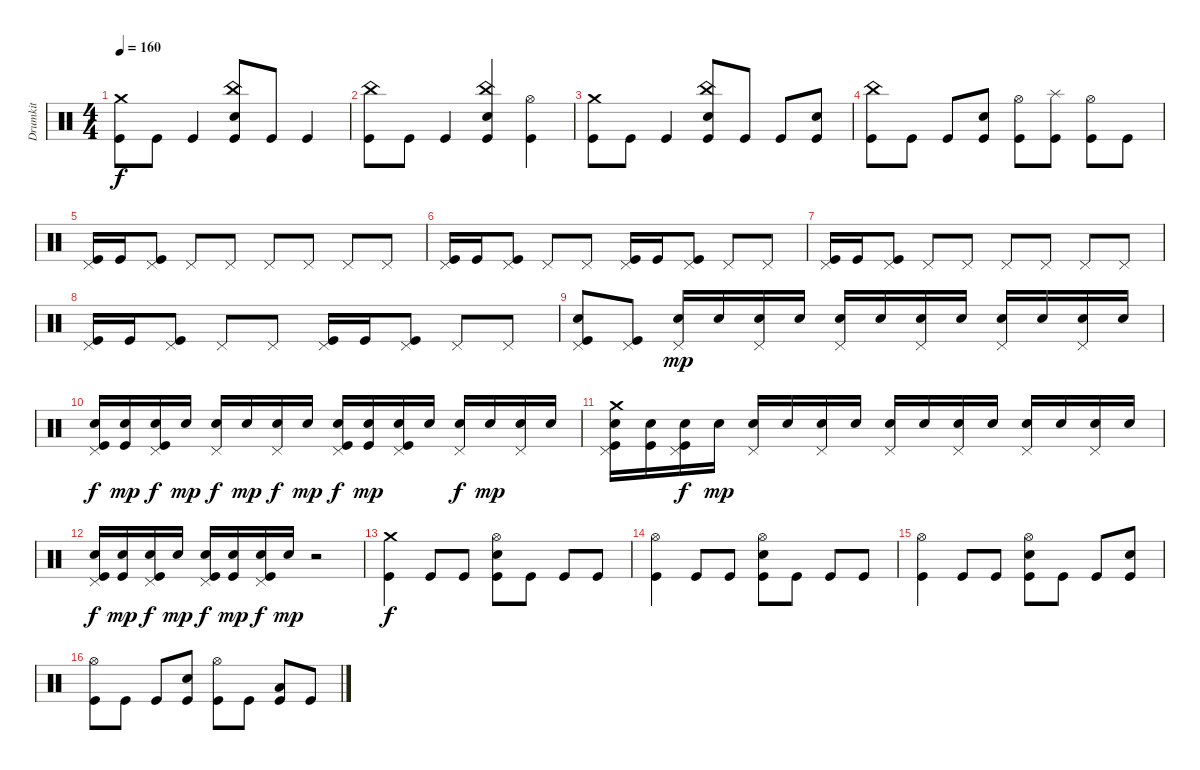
\track ("Drumkit" "Drumkit") {instrument percussion}
\staff {score}
\articulation defaults
\ts (4 4)
\tempo 160
\clef neutral
\ks c
("Crash medium (hit)" "Kick (hit)").8{dy f} "Kick (hit)".8 "Kick (hit)".4 ("China (hit)" "Snare (hit) 2" "Kick (hit)").8 "Kick (hit)".8 "Kick (hit)".4 |
("China (hit)" "Kick (hit)").8 "Kick (hit)".8 "Kick (hit)".4 ("China (hit)" "Snare (hit) 2" "Kick (hit)").4 ("Hi-Hat (open)" "Kick (hit)").4 |
("Crash medium (hit)" "Kick (hit)").8 "Kick (hit)".8 "Kick (hit)".4 ("China (hit)" "Snare (hit) 2" "Kick (hit)").8 "Kick (hit)".8 "Kick (hit)".8 ("Snare (hit) 2" "Kick (hit)").8 |
("China (hit)" "Kick (hit)").8 "Kick (hit)".8 "Kick (hit)".8 ("Snare (hit) 2" "Kick (hit)").8 ("Hi-Hat (open)" "Kick (hit)").8 ("Splash (hit)" "Kick (hit)").8 ("Hi-Hat (open)" "Kick (hit)").8 "Kick (hit)".8 |
("Pedal Hi-Hat (hit)" "Kick (hit)").16 "Kick (hit)".16 ("Pedal Hi-Hat (hit)" "Kick (hit)").8 "Pedal Hi-Hat (hit)".8 "Pedal Hi-Hat (hit)".8 "Pedal Hi-Hat (hit)".8 "Pedal Hi-Hat (hit)".8 "Pedal Hi-Hat (hit)".8 "Pedal Hi-Hat (hit)".8 |
("Pedal Hi-Hat (hit)" "Kick (hit)").16 "Kick (hit)".16 ("Pedal Hi-Hat (hit)" "Kick (hit)").8 "Pedal Hi-Hat (hit)".8 "Pedal Hi-Hat (hit)".8 ("Pedal Hi-Hat (hit)" "Kick (hit)").16 "Kick (hit)".16 ("Pedal Hi-Hat (hit)" "Kick (hit)").8 "Pedal Hi-Hat (hit)".8 "Pedal Hi-Hat (hit)".8 |
("Pedal Hi-Hat (hit)" "Kick (hit)").16 "Kick (hit)".16 ("Pedal Hi-Hat (hit)" "Kick (hit)").8 "Pedal Hi-Hat (hit)".8 "Pedal Hi-Hat (hit)".8 "Pedal Hi-Hat (hit)".8 "Pedal Hi-Hat (hit)".8 "Pedal Hi-Hat (hit)".8 "Pedal Hi-Hat (hit)".8 |
("Pedal Hi-Hat (hit)" "Kick (hit)").16 "Kick (hit)".16 ("Pedal Hi-Hat (hit)" "Kick (hit)").8 "Pedal Hi-Hat (hit)".8 "Pedal Hi-Hat (hit)".8 ("Pedal Hi-Hat (hit)" "Kick (hit)").16 "Kick (hit)".16 ("Pedal Hi-Hat (hit)" "Kick (hit)").8 "Pedal Hi-Hat (hit)".8 "Pedal Hi-Hat (hit)".8 |
("Pedal Hi-Hat (hit)" "Snare (hit) 2" "Kick (hit)").8 ("Pedal Hi-Hat (hit)" "Kick (hit)").8 ("Pedal Hi-Hat (hit)" "Snare (hit) 2").16{dy mp} "Snare (hit) 2".16 ("Pedal Hi-Hat (hit)" "Snare (hit) 2").16 "Snare (hit) 2".16 ("Pedal Hi-Hat (hit)" "Snare (hit) 2").16 "Snare (hit) 2".16 ("Pedal Hi-Hat (hit)" "Snare (hit) 2").16 "Snare (hit) 2".16 ("Pedal Hi-Hat (hit)" "Snare (hit) 2").16 "Snare (hit) 2".16 ("Pedal Hi-Hat (hit)" "Snare (hit) 2").16 "Snare (hit) 2".16 |
("Pedal Hi-Hat (hit)" "Snare (hit) 2" "Kick (hit)").16{dy f} ("Snare (hit) 2" "Kick (hit)").16{dy mp} ("Pedal Hi-Hat (hit)" "Snare (hit) 2" "Kick (hit)").16{dy f} "Snare (hit) 2".16{dy mp} ("Pedal Hi-Hat (hit)" "Snare (hit) 2").16{dy f} "Snare (hit) 2".16{dy mp} ("Pedal Hi-Hat (hit)" "Snare (hit) 2").16{dy f} "Snare (hit) 2".16{dy mp} ("Pedal Hi-Hat (hit)" "Snare (hit) 2" "Kick (hit)").16{dy f} ("Snare (hit) 2" "Kick (hit)").16{dy mp} ("Pedal Hi-Hat (hit)" "Snare (hit) 2" "Kick (hit)").16 "Snare (hit) 2".16 ("Pedal Hi-Hat (hit)" "Snare (hit) 2").16{dy f} "Snare (hit) 2".16{dy mp} ("Pedal Hi-Hat (hit)" "Snare (hit) 2").16 "Snare (hit) 2".16 |
("Crash medium (hit)" "Pedal Hi-Hat (hit)" "Snare (hit) 2" "Kick (hit)").16 ("Snare (hit) 2" "Kick (hit)").16 ("Pedal Hi-Hat (hit)" "Snare (hit) 2" "Kick (hit)").16{dy f} "Snare (hit) 2".16{dy mp} ("Pedal Hi-Hat (hit)" "Snare (hit) 2").16 "Snare (hit) 2".16 ("Pedal Hi-Hat (hit)" "Snare (hit) 2").16 "Snare (hit) 2".16 ("Pedal Hi-Hat (hit)" "Snare (hit) 2").16 "Snare (hit) 2".16 ("Pedal Hi-Hat (hit)" "Snare (hit) 2").16 "Snare (hit) 2".16 ("Pedal Hi-Hat (hit)" "Snare (hit) 2").16 "Snare (hit) 2".16 ("Pedal Hi-Hat (hit)" "Snare (hit) 2").16 "Snare (hit) 2".16 |
("Pedal Hi-Hat (hit)" "Snare (hit) 2" "Kick (hit)").16{dy f} ("Snare (hit) 2" "Kick (hit)").16{dy mp} ("Pedal Hi-Hat (hit)" "Snare (hit) 2" "Kick (hit)").16{dy f} "Snare (hit) 2".16{dy mp} ("Pedal Hi-Hat (hit)" "Snare (hit) 2" "Kick (hit)").16{dy f} ("Snare (hit) 2" "Kick (hit)").16{dy mp} ("Pedal Hi-Hat (hit)" "Snare (hit) 2" "Kick (hit)").16{dy f} "Snare (hit) 2".16{dy mp} r.2 |
("Crash medium (hit)" "Kick (hit)").4{dy f} "Kick (hit)".8 "Kick (hit)".8 ("Hi-Hat (open)" "Snare (hit) 2" "Kick (hit)").8 "Kick (hit)".8 "Kick (hit)".8 "Kick (hit)".8 |
("Hi-Hat (open)" "Kick (hit)").4 "Kick (hit)".8 "Kick (hit)".8 ("Hi-Hat (open)" "Snare (hit) 2" "Kick (hit)").8 "Kick (hit)".8 "Kick (hit)".8 "Kick (hit)".8 |
("Hi-Hat (open)" "Kick (hit)").4 "Kick (hit)".8 "Kick (hit)".8 ("Hi-Hat (open)" "Snare (hit) 2" "Kick (hit)").8 "Kick (hit)".8 "Kick (hit)".8 ("Snare (hit) 2" "Kick (hit)").8 |
("Hi-Hat (open)" "Kick (hit)").8 "Kick (hit)".8 "Kick (hit)".8 ("Snare (hit) 2" "Kick (hit)").8 ("Hi-Hat (open)" "Kick (hit)").8 "Kick (hit)".8 ("Low Tom (hit)" "Kick (hit)").8 "Kick (hit)".8
